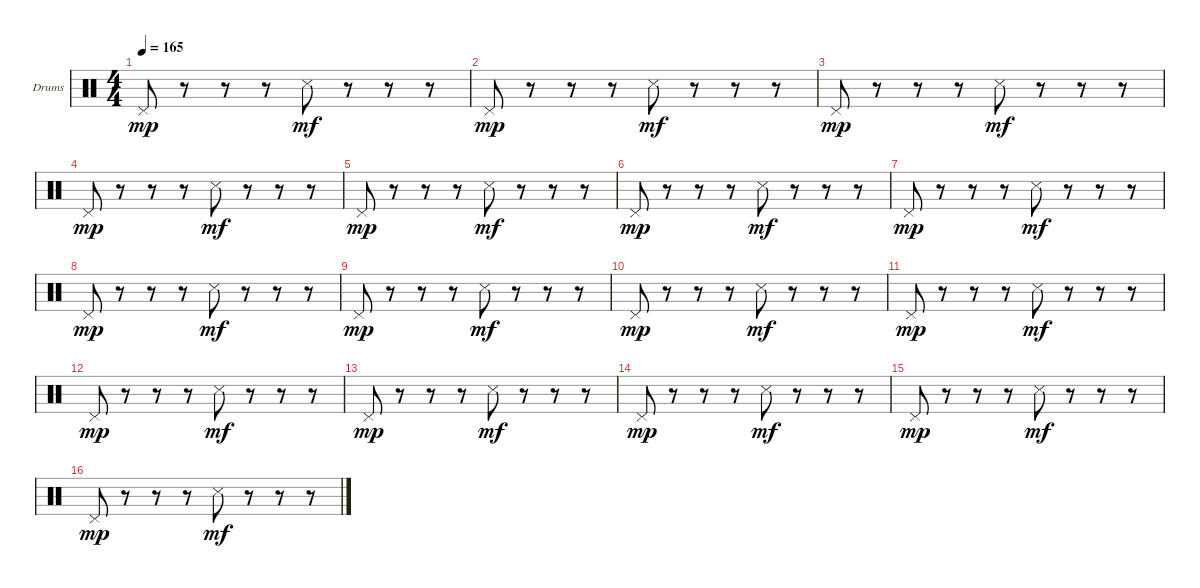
\defaultSystemsLayout 4
\bracketExtendMode groupsimilarinstruments
\firstSystemTrackNameOrientation horizontal
\otherSystemsTrackNameOrientation horizontal
\track ("Drumkit" "Drums") {instrument percussion}
\staff {score}
\articulation defaults
\ts (4 4)
\tempo 165
\clef neutral
\ks c "Pedal Hi-Hat (hit)".8{dy mp}
r.8 r.8 r.8 "Snare (side stick) 3".8{dy mf} r.8 r.8 r.8 |
"Pedal Hi-Hat (hit)".8{dy mp} r.8 r.8 r.8 "Snare (side stick) 3".8{dy mf} r.8 r.8 r.8 |
"Pedal Hi-Hat (hit)".8{dy mp} r.8 r.8 r.8 "Snare (side stick) 3".8{dy mf} r.8 r.8 r.8 |
"Pedal Hi-Hat (hit)".8{dy mp} r.8 r.8 r.8 "Snare (side stick) 3".8{dy mf} r.8 r.8 r.8 |
"Pedal Hi-Hat (hit)".8{dy mp} r.8 r.8 r.8 "Snare (side stick) 3".8{dy mf} r.8 r.8 r.8 |
"Pedal Hi-Hat (hit)".8{dy mp} r.8 r.8 r.8 "Snare (side stick) 3".8{dy mf} r.8 r.8 r.8 |
"Pedal Hi-Hat (hit)".8{dy mp} r.8 r.8 r.8 "Snare (side stick) 3".8{dy mf} r.8 r.8 r.8 |
"Pedal Hi-Hat (hit)".8{dy mp} r.8 r.8 r.8 "Snare (side stick) 3".8{dy mf} r.8 r.8 r.8 |
"Pedal Hi-Hat (hit)".8{dy mp} r.8 r.8 r.8 "Snare (side stick) 3".8{dy mf} r.8 r.8 r.8 |
"Pedal Hi-Hat (hit)".8{dy mp} r.8 r.8 r.8 "Snare (side stick) 3".8{dy mf} r.8 r.8 r.8 |
"Pedal Hi-Hat (hit)".8{dy mp} r.8 r.8 r.8 "Snare (side stick) 3".8{dy mf} r.8 r.8 r.8 |
"Pedal Hi-Hat (hit)".8{dy mp} r.8 r.8 r.8 "Snare (side stick) 3".8{dy mf} r.8 r.8 r.8 |
"Pedal Hi-Hat (hit)".8{dy mp} r.8 r.8 r.8 "Snare (side stick) 3".8{dy mf} r.8 r.8 r.8 |
"Pedal Hi-Hat (hit)".8{dy mp} r.8 r.8 r.8 "Snare (side stick) 3".8{dy mf} r.8 r.8 r.8 |
"Pedal Hi-Hat (hit)".8{dy mp} r.8 r.8 r.8 "Snare (side stick) 3".8{dy mf} r.8 r.8 r.8 |
"Pedal Hi-Hat (hit)".8{dy mp} r.8 r.8 r.8 "Snare (side stick) 3".8{dy mf} r.8 r.8 r.8
